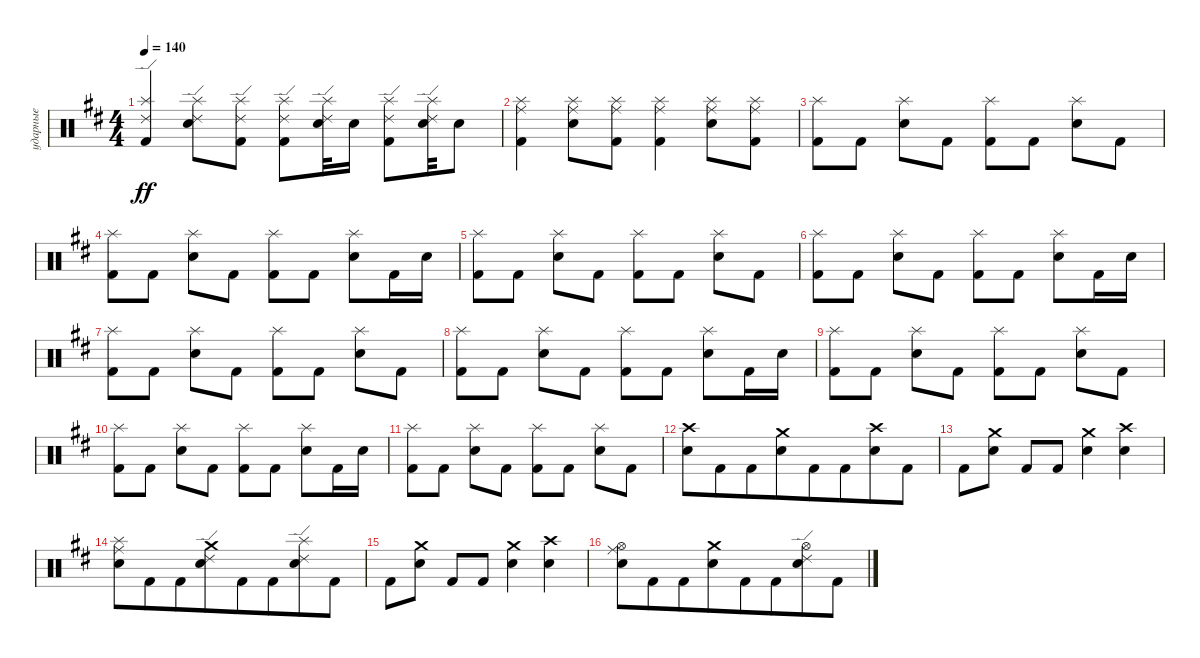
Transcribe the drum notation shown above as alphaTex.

\track ("ударные" "ударные") {instrument percussion}
\staff {score}
\articulation defaults
\ts (4 4)
\tempo 140
\clef neutral
\ks bminor
("Kick (hit) 2" "Splash (hit)" "Ride (edge) 2").4{dy ff} ("Snare (hit) 2" "Splash (hit)" "Ride (edge) 2").8 ("Kick (hit) 2" "Splash (hit)" "Ride (edge) 2").8 ("Kick (hit) 2" "Splash (hit)" "Ride (edge) 2").8 ("Snare (hit) 2" "Splash (hit)" "Ride (edge) 2").32 "Snare (hit) 2".16{beam split} ("Kick (hit) 2" "Splash (hit)" "Ride (edge) 2").8{beam merge} ("Snare (hit) 2" "Splash (hit)" "Ride (edge) 2").32 "Snare (hit) 2".8 |
("Kick (hit) 2" "Splash (hit)" "Ride (middle)").4 ("Snare (hit) 2" "Splash (hit)" "Ride (middle)").8 ("Kick (hit) 2" "Splash (hit)" "Ride (middle)").8 ("Kick (hit) 2" "Splash (hit)" "Ride (middle)").4 ("Snare (hit) 2" "Splash (hit)" "Ride (middle)").8 ("Kick (hit) 2" "Splash (hit)" "Ride (middle)").8 |
("Kick (hit) 2" "Splash (hit)").8 "Kick (hit) 2".8 ("Snare (hit) 2" "Splash (hit)").8 "Kick (hit) 2".8 ("Kick (hit) 2" "Splash (hit)").8 "Kick (hit) 2".8 ("Snare (hit) 2" "Splash (hit)").8 "Kick (hit) 2".8 |
("Kick (hit) 2" "Splash (hit)").8 "Kick (hit) 2".8 ("Snare (hit) 2" "Splash (hit)").8 "Kick (hit) 2".8 ("Kick (hit) 2" "Splash (hit)").8 "Kick (hit) 2".8 ("Snare (hit) 2" "Splash (hit)").8 "Kick (hit) 2".16 "Snare (hit) 2".16 |
("Kick (hit) 2" "Splash (hit)").8 "Kick (hit) 2".8 ("Snare (hit) 2" "Splash (hit)").8 "Kick (hit) 2".8 ("Kick (hit) 2" "Splash (hit)").8 "Kick (hit) 2".8 ("Snare (hit) 2" "Splash (hit)").8 "Kick (hit) 2".8 |
("Kick (hit) 2" "Splash (hit)").8 "Kick (hit) 2".8 ("Snare (hit) 2" "Splash (hit)").8 "Kick (hit) 2".8 ("Kick (hit) 2" "Splash (hit)").8 "Kick (hit) 2".8 ("Snare (hit) 2" "Splash (hit)").8 "Kick (hit) 2".16 "Snare (hit) 2".16 |
("Kick (hit) 2" "Splash (hit)").8 "Kick (hit) 2".8 ("Snare (hit) 2" "Splash (hit)").8 "Kick (hit) 2".8 ("Kick (hit) 2" "Splash (hit)").8 "Kick (hit) 2".8 ("Snare (hit) 2" "Splash (hit)").8 "Kick (hit) 2".8 |
("Kick (hit) 2" "Splash (hit)").8 "Kick (hit) 2".8 ("Snare (hit) 2" "Splash (hit)").8 "Kick (hit) 2".8 ("Kick (hit) 2" "Splash (hit)").8 "Kick (hit) 2".8 ("Snare (hit) 2" "Splash (hit)").8 "Kick (hit) 2".16 "Snare (hit) 2".16 |
("Kick (hit) 2" "Splash (hit)").8 "Kick (hit) 2".8 ("Snare (hit) 2" "Splash (hit)").8 "Kick (hit) 2".8 ("Kick (hit) 2" "Splash (hit)").8 "Kick (hit) 2".8 ("Snare (hit) 2" "Splash (hit)").8 "Kick (hit) 2".8 |
("Kick (hit) 2" "Splash (hit)").8 "Kick (hit) 2".8 ("Snare (hit) 2" "Splash (hit)").8 "Kick (hit) 2".8 ("Kick (hit) 2" "Splash (hit)").8 "Kick (hit) 2".8 ("Snare (hit) 2" "Splash (hit)").8 "Kick (hit) 2".16 "Snare (hit) 2".16 |
("Kick (hit) 2" "Splash (hit)").8 "Kick (hit) 2".8 ("Snare (hit) 2" "Splash (hit)").8 "Kick (hit) 2".8 ("Kick (hit) 2" "Splash (hit)").8 "Kick (hit) 2".8 ("Snare (hit) 2" "Splash (hit)").8 "Kick (hit) 2".8 |
("Snare (hit) 2" "Crash high (hit)").8 "Kick (hit) 2".8{beam merge} "Kick (hit) 2".8 ("Snare (hit) 2" "Crash medium (hit)").8{beam merge} "Kick (hit) 2".8{beam merge} "Kick (hit) 2".8{beam merge} ("Snare (hit) 2" "Crash high (hit)").8 "Kick (hit) 2".8 |
"Kick (hit) 2".8 ("Snare (hit) 2" "Crash medium (hit)").8 "Kick (hit) 2".8 "Kick (hit) 2".8 ("Snare (hit) 2" "Crash medium (hit)").4 ("Snare (hit) 2" "Crash high (hit)").4 |
("Snare (hit) 2" "Splash (hit)" "Ride (middle)").8 "Kick (hit) 2".8{beam merge} "Kick (hit) 2".8 ("Snare (hit) 2" "Crash medium (hit)" "Ride (edge) 2").8{beam merge} "Kick (hit) 2".8 "Kick (hit) 2".8{beam merge} ("Snare (hit) 2" "Splash (hit)" "Ride (edge) 2").8 "Kick (hit) 2".8 |
"Kick (hit) 2".8 ("Snare (hit) 2" "Crash medium (hit)").8 "Kick (hit) 2".8 "Kick (hit) 2".8 ("Snare (hit) 2" "Crash medium (hit)").4 ("Snare (hit) 2" "Crash high (hit)").4 |
("Snare (hit) 2" "Hi-Hat (open)" "Ride (middle)").8 "Kick (hit) 2".8{beam merge} "Kick (hit) 2".8 ("Snare (hit) 2" "Crash medium (hit)").8{beam merge} "Kick (hit) 2".8 "Kick (hit) 2".8{beam merge} ("Hi-Hat (open)" "Ride (edge) 2" "Snare (hit) 2").8 "Kick (hit) 2".8
